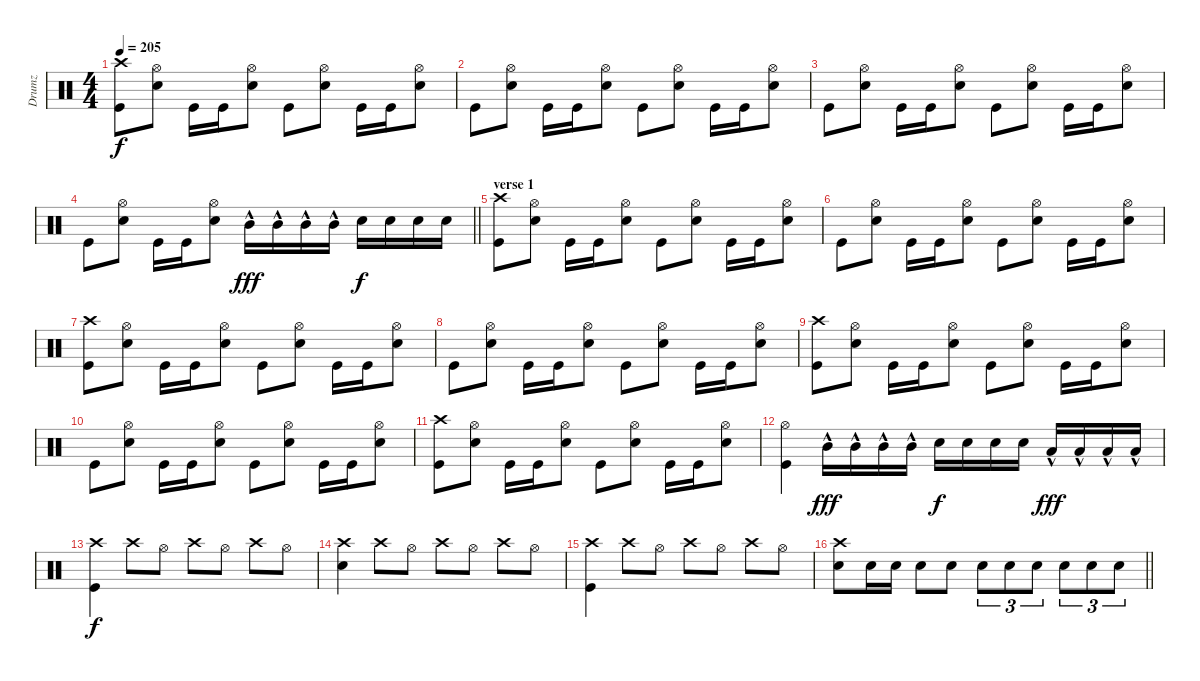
\track ("Drumz" "Drumz") {instrument percussion}
\staff {score}
\articulation defaults
\ts (4 4)
\tempo 205
\clef neutral
\ks c
("Crash high (hit)" "Kick (hit)").8{dy f} ("Hi-Hat (open)" "Electric Snare (hit)").8 "Kick (hit)".16 "Kick (hit)".16 ("Hi-Hat (open)" "Electric Snare (hit)").8 "Kick (hit)".8 ("Hi-Hat (open)" "Electric Snare (hit)").8 "Kick (hit)".16 "Kick (hit)".16 ("Hi-Hat (open)" "Electric Snare (hit)").8 |
"Kick (hit)".8 ("Hi-Hat (open)" "Electric Snare (hit)").8 "Kick (hit)".16 "Kick (hit)".16 ("Hi-Hat (open)" "Electric Snare (hit)").8 "Kick (hit)".8 ("Hi-Hat (open)" "Electric Snare (hit)").8 "Kick (hit)".16 "Kick (hit)".16 ("Hi-Hat (open)" "Electric Snare (hit)").8 |
"Kick (hit)".8 ("Hi-Hat (open)" "Electric Snare (hit)").8 "Kick (hit)".16 "Kick (hit)".16 ("Hi-Hat (open)" "Electric Snare (hit)").8 "Kick (hit)".8 ("Hi-Hat (open)" "Electric Snare (hit)").8 "Kick (hit)".16 "Kick (hit)".16 ("Hi-Hat (open)" "Electric Snare (hit)").8 |
\barLineRight lightlight "Kick (hit)".8
("Hi-Hat (open)" "Electric Snare (hit)").8 "Kick (hit)".16 "Kick (hit)".16 ("Hi-Hat (open)" "Electric Snare (hit)").8 "Mid Tom (hit)"{hac}.16{dy fff} "Mid Tom (hit)"{hac}.16 "Mid Tom (hit)"{hac}.16 "Mid Tom (hit)"{hac}.16 "Electric Snare (hit)".16{dy f} "Electric Snare (hit)".16 "Electric Snare (hit)".16 "Electric Snare (hit)".16 |
\section ("" "verse 1")
("Crash high (hit)" "Kick (hit)").8 ("Hi-Hat (open)" "Electric Snare (hit)").8 "Kick (hit)".16 "Kick (hit)".16 ("Hi-Hat (open)" "Electric Snare (hit)").8 "Kick (hit)".8 ("Hi-Hat (open)" "Electric Snare (hit)").8 "Kick (hit)".16 "Kick (hit)".16 ("Hi-Hat (open)" "Electric Snare (hit)").8 |
"Kick (hit)".8 ("Hi-Hat (open)" "Electric Snare (hit)").8 "Kick (hit)".16 "Kick (hit)".16 ("Hi-Hat (open)" "Electric Snare (hit)").8 "Kick (hit)".8 ("Hi-Hat (open)" "Electric Snare (hit)").8 "Kick (hit)".16 "Kick (hit)".16 ("Hi-Hat (open)" "Electric Snare (hit)").8 |
("Crash high (hit)" "Kick (hit)").8 ("Hi-Hat (open)" "Electric Snare (hit)").8 "Kick (hit)".16 "Kick (hit)".16 ("Hi-Hat (open)" "Electric Snare (hit)").8 "Kick (hit)".8 ("Hi-Hat (open)" "Electric Snare (hit)").8 "Kick (hit)".16 "Kick (hit)".16 ("Hi-Hat (open)" "Electric Snare (hit)").8 |
"Kick (hit)".8 ("Hi-Hat (open)" "Electric Snare (hit)").8 "Kick (hit)".16 "Kick (hit)".16 ("Hi-Hat (open)" "Electric Snare (hit)").8 "Kick (hit)".8 ("Hi-Hat (open)" "Electric Snare (hit)").8 "Kick (hit)".16 "Kick (hit)".16 ("Hi-Hat (open)" "Electric Snare (hit)").8 |
("Crash high (hit)" "Kick (hit)").8 ("Hi-Hat (open)" "Electric Snare (hit)").8 "Kick (hit)".16 "Kick (hit)".16 ("Hi-Hat (open)" "Electric Snare (hit)").8 "Kick (hit)".8 ("Hi-Hat (open)" "Electric Snare (hit)").8 "Kick (hit)".16 "Kick (hit)".16 ("Hi-Hat (open)" "Electric Snare (hit)").8 |
"Kick (hit)".8 ("Hi-Hat (open)" "Electric Snare (hit)").8 "Kick (hit)".16 "Kick (hit)".16 ("Hi-Hat (open)" "Electric Snare (hit)").8 "Kick (hit)".8 ("Hi-Hat (open)" "Electric Snare (hit)").8 "Kick (hit)".16 "Kick (hit)".16 ("Hi-Hat (open)" "Electric Snare (hit)").8 |
("Crash high (hit)" "Kick (hit)").8 ("Hi-Hat (open)" "Electric Snare (hit)").8 "Kick (hit)".16 "Kick (hit)".16 ("Hi-Hat (open)" "Electric Snare (hit)").8 "Kick (hit)".8 ("Hi-Hat (open)" "Electric Snare (hit)").8 "Kick (hit)".16 "Kick (hit)".16 ("Hi-Hat (open)" "Electric Snare (hit)").8 |
("Hi-Hat (open)" "Kick (hit)").4 "Mid Tom (hit)"{hac}.16{dy fff} "Mid Tom (hit)"{hac}.16 "Mid Tom (hit)"{hac}.16 "Mid Tom (hit)"{hac}.16 "Electric Snare (hit)".16{dy f} "Electric Snare (hit)".16 "Electric Snare (hit)".16 "Electric Snare (hit)".16 "Low Tom (hit)"{hac}.16{dy fff} "Low Tom (hit)"{hac}.16 "Low Tom (hit)"{hac}.16 "Low Tom (hit)"{hac}.16 |
("Crash high (hit)" "Kick (hit)").4{dy f} "Crash high (hit)".8 "Hi-Hat (open)".8 "Crash high (hit)".8 "Hi-Hat (open)".8 "Crash high (hit)".8 "Hi-Hat (open)".8 |
("Crash high (hit)" "Electric Snare (hit)").4 "Crash high (hit)".8 "Hi-Hat (open)".8 "Crash high (hit)".8 "Hi-Hat (open)".8 "Crash high (hit)".8 "Hi-Hat (open)".8 |
("Crash high (hit)" "Kick (hit)").4 "Crash high (hit)".8 "Hi-Hat (open)".8 "Crash high (hit)".8 "Hi-Hat (open)".8 "Crash high (hit)".8 "Hi-Hat (open)".8 |
\barLineRight lightlight
("Crash high (hit)" "Electric Snare (hit)").8 "Electric Snare (hit)".16 "Electric Snare (hit)".16 "Electric Snare (hit)".8 "Electric Snare (hit)".8 "Electric Snare (hit)".8{tu (3 2)} "Electric Snare (hit)".8{tu (3 2)} "Electric Snare (hit)".8{tu (3 2)} "Electric Snare (hit)".8{tu (3 2)} "Electric Snare (hit)".8{tu (3 2)} "Electric Snare (hit)".8{tu (3 2)}
